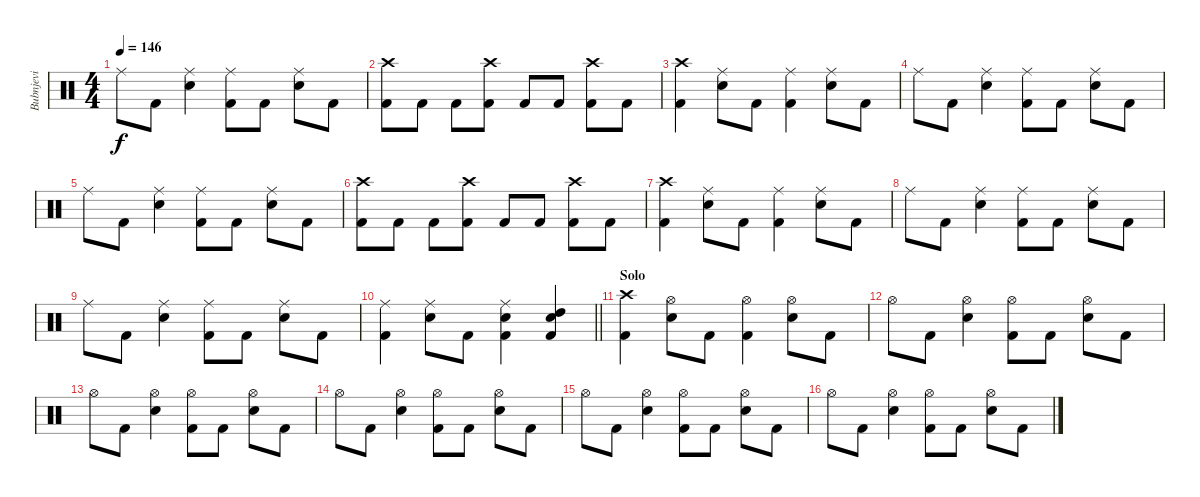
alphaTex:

\track ("Bubnjevi" "Bubnjevi") {instrument percussion}
\staff {score}
\articulation defaults
\ts (4 4)
\tempo 146
\clef neutral
\ks c "Ride (middle)".8{dy f} "Kick (hit) 2".8
("Ride (middle)" "Electric Snare (hit)").4 ("Ride (middle)" "Kick (hit) 2").8 "Kick (hit) 2".8 ("Ride (middle)" "Electric Snare (hit)").8 "Kick (hit) 2".8 |
("Crash high (hit)" "Kick (hit) 2").8 "Kick (hit) 2".8 "Kick (hit) 2".8 ("Crash high (hit)" "Kick (hit) 2").8 "Kick (hit) 2".8 "Kick (hit) 2".8 ("Crash high (hit)" "Kick (hit) 2").8 "Kick (hit) 2".8 |
("Crash high (hit)" "Kick (hit) 2").4 ("Ride (middle)" "Electric Snare (hit)").8 "Kick (hit) 2".8 ("Ride (middle)" "Kick (hit) 2").4 ("Ride (middle)" "Electric Snare (hit)").8 "Kick (hit) 2".8 |
"Ride (middle)".8 "Kick (hit) 2".8 ("Ride (middle)" "Electric Snare (hit)").4 ("Ride (middle)" "Kick (hit) 2").8 "Kick (hit) 2".8 ("Ride (middle)" "Electric Snare (hit)").8 "Kick (hit) 2".8 |
"Ride (middle)".8 "Kick (hit) 2".8 ("Ride (middle)" "Electric Snare (hit)").4 ("Ride (middle)" "Kick (hit) 2").8 "Kick (hit) 2".8 ("Ride (middle)" "Electric Snare (hit)").8 "Kick (hit) 2".8 |
("Crash high (hit)" "Kick (hit) 2").8 "Kick (hit) 2".8 "Kick (hit) 2".8 ("Crash high (hit)" "Kick (hit) 2").8 "Kick (hit) 2".8 "Kick (hit) 2".8 ("Crash high (hit)" "Kick (hit) 2").8 "Kick (hit) 2".8 |
("Crash high (hit)" "Kick (hit) 2").4 ("Ride (middle)" "Electric Snare (hit)").8 "Kick (hit) 2".8 ("Ride (middle)" "Kick (hit) 2").4 ("Ride (middle)" "Electric Snare (hit)").8 "Kick (hit) 2".8 |
"Ride (middle)".8 "Kick (hit) 2".8 ("Ride (middle)" "Electric Snare (hit)").4 ("Ride (middle)" "Kick (hit) 2").8 "Kick (hit) 2".8 ("Ride (middle)" "Electric Snare (hit)").8 "Kick (hit) 2".8 |
"Ride (middle)".8 "Kick (hit) 2".8 ("Ride (middle)" "Electric Snare (hit)").4 ("Ride (middle)" "Kick (hit) 2").8 "Kick (hit) 2".8 ("Ride (middle)" "Electric Snare (hit)").8 "Kick (hit) 2".8 |
\barLineRight lightlight
("Ride (middle)" "Kick (hit) 2").4 ("Ride (middle)" "Electric Snare (hit)").8 "Kick (hit) 2".8 ("Ride (middle)" "Electric Snare (hit)" "Kick (hit) 2").4 ("High Tom (hit)" "Electric Snare (hit)" "Kick (hit) 2").4 |
\section ("" "Solo")
("Crash high (hit)" "Kick (hit) 2").4 ("Hi-Hat (open)" "Electric Snare (hit)").8 "Kick (hit) 2".8 ("Hi-Hat (open)" "Kick (hit) 2").4 ("Hi-Hat (open)" "Electric Snare (hit)").8 "Kick (hit) 2".8 |
"Hi-Hat (open)".8 "Kick (hit) 2".8 ("Hi-Hat (open)" "Electric Snare (hit)").4 ("Hi-Hat (open)" "Kick (hit) 2").8 "Kick (hit) 2".8 ("Hi-Hat (open)" "Electric Snare (hit)").8 "Kick (hit) 2".8 |
"Hi-Hat (open)".8 "Kick (hit) 2".8 ("Hi-Hat (open)" "Electric Snare (hit)").4 ("Hi-Hat (open)" "Kick (hit) 2").8 "Kick (hit) 2".8 ("Hi-Hat (open)" "Electric Snare (hit)").8 "Kick (hit) 2".8 |
"Hi-Hat (open)".8 "Kick (hit) 2".8 ("Hi-Hat (open)" "Electric Snare (hit)").4 ("Hi-Hat (open)" "Kick (hit) 2").8 "Kick (hit) 2".8 ("Hi-Hat (open)" "Electric Snare (hit)").8 "Kick (hit) 2".8 |
"Hi-Hat (open)".8 "Kick (hit) 2".8 ("Hi-Hat (open)" "Electric Snare (hit)").4 ("Hi-Hat (open)" "Kick (hit) 2").8 "Kick (hit) 2".8 ("Hi-Hat (open)" "Electric Snare (hit)").8 "Kick (hit) 2".8 |
"Hi-Hat (open)".8 "Kick (hit) 2".8 ("Hi-Hat (open)" "Electric Snare (hit)").4 ("Hi-Hat (open)" "Kick (hit) 2").8 "Kick (hit) 2".8 ("Hi-Hat (open)" "Electric Snare (hit)").8 "Kick (hit) 2".8
